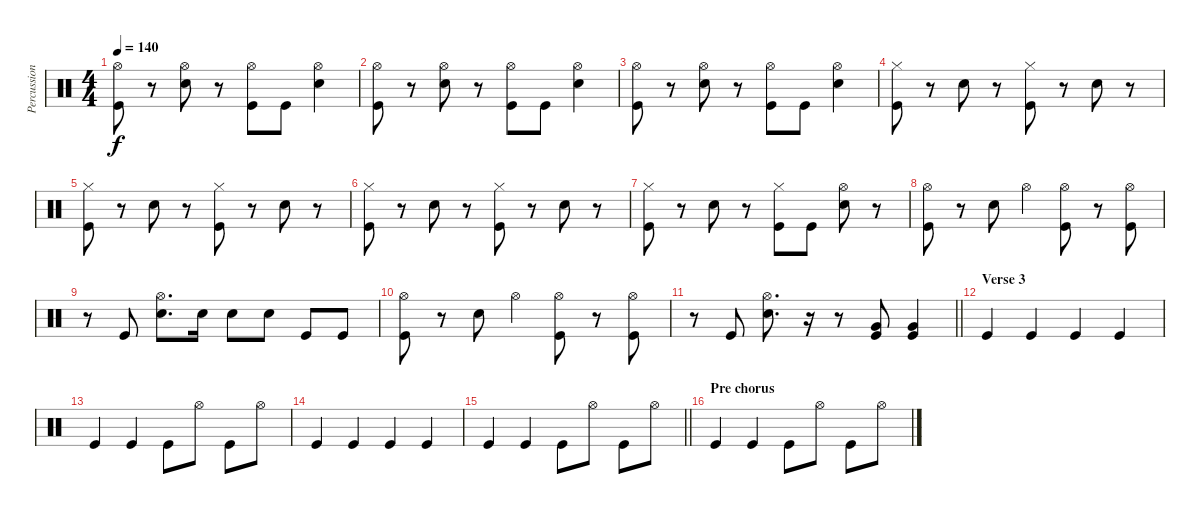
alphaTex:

\track ("Percussions" "Percussion") {instrument percussion}
\staff {score}
\articulation defaults
\ts (4 4)
\tempo 140
\clef neutral
\ks c
("Hi-Hat (open)" "Kick (hit)").8{dy f} r.8 ("Hi-Hat (open)" "Snare (hit) 2").8 r.8 ("Hi-Hat (open)" "Kick (hit)").8 "Kick (hit)".8 ("Hi-Hat (open)" "Snare (hit) 2").4 |
("Hi-Hat (open)" "Kick (hit)").8 r.8 ("Hi-Hat (open)" "Snare (hit) 2").8 r.8 ("Hi-Hat (open)" "Kick (hit)").8 "Kick (hit)".8 ("Hi-Hat (open)" "Snare (hit) 2").4 |
("Hi-Hat (open)" "Kick (hit)").8 r.8 ("Hi-Hat (open)" "Snare (hit) 2").8 r.8 ("Hi-Hat (open)" "Kick (hit)").8 "Kick (hit)".8 ("Hi-Hat (open)" "Snare (hit) 2").4 |
("Hi-Hat (closed)" "Kick (hit)").8 r.8 "Snare (hit) 2".8 r.8 ("Hi-Hat (closed)" "Kick (hit)").8 r.8 "Snare (hit) 2".8 r.8 |
("Hi-Hat (closed)" "Kick (hit)").8 r.8 "Snare (hit) 2".8 r.8 ("Hi-Hat (closed)" "Kick (hit)").8 r.8 "Snare (hit) 2".8 r.8 |
("Hi-Hat (closed)" "Kick (hit)").8 r.8 "Snare (hit) 2".8 r.8 ("Hi-Hat (closed)" "Kick (hit)").8 r.8 "Snare (hit) 2".8 r.8 |
("Hi-Hat (closed)" "Kick (hit)").8 r.8 "Snare (hit) 2".8 r.8 ("Hi-Hat (closed)" "Kick (hit)").8 "Kick (hit)".8 ("Hi-Hat (open)" "Snare (hit) 2").8 r.8 |
("Hi-Hat (open)" "Kick (hit)").8 r.8 "Snare (hit) 2".8 "Hi-Hat (open)".4 ("Hi-Hat (open)" "Kick (hit)").8 r.8 ("Hi-Hat (open)" "Kick (hit)").8 |
r.8 "Kick (hit)".8 ("Hi-Hat (open)" "Snare (hit) 2").8{d} "Snare (hit) 2".16 "Snare (hit) 2".8 "Snare (hit) 2".8 "Kick (hit)".8 "Kick (hit)".8 |
("Hi-Hat (open)" "Kick (hit)").8 r.8 "Snare (hit) 2".8 "Hi-Hat (open)".4 ("Hi-Hat (open)" "Kick (hit)").8 r.8 ("Hi-Hat (open)" "Kick (hit)").8 |
\barLineRight lightlight
r.8 "Kick (hit)".8 ("Hi-Hat (open)" "Snare (hit) 2").8{d} r.16 r.8 ("Very Low Tom (hit)" "Kick (hit)").8 ("Very Low Tom (hit)" "Kick (hit)").4 |
\section ("" "Verse 3")
"Kick (hit)".4 "Kick (hit)".4 "Kick (hit)".4 "Kick (hit)".4 |
"Kick (hit)".4 "Kick (hit)".4 "Kick (hit)".8 "Hi-Hat (open)".8 "Kick (hit)".8 "Hi-Hat (open)".8 |
"Kick (hit)".4 "Kick (hit)".4 "Kick (hit)".4 "Kick (hit)".4 |
\barLineRight lightlight "Kick (hit)".4 "Kick (hit)".4 "Kick (hit)".8 "Hi-Hat (open)".8 "Kick (hit)".8 "Hi-Hat (open)".8
|
\section ("" "Pre chorus")
"Kick (hit)".4 "Kick (hit)".4 "Kick (hit)".8 "Hi-Hat (open)".8 "Kick (hit)".8 "Hi-Hat (open)".8
